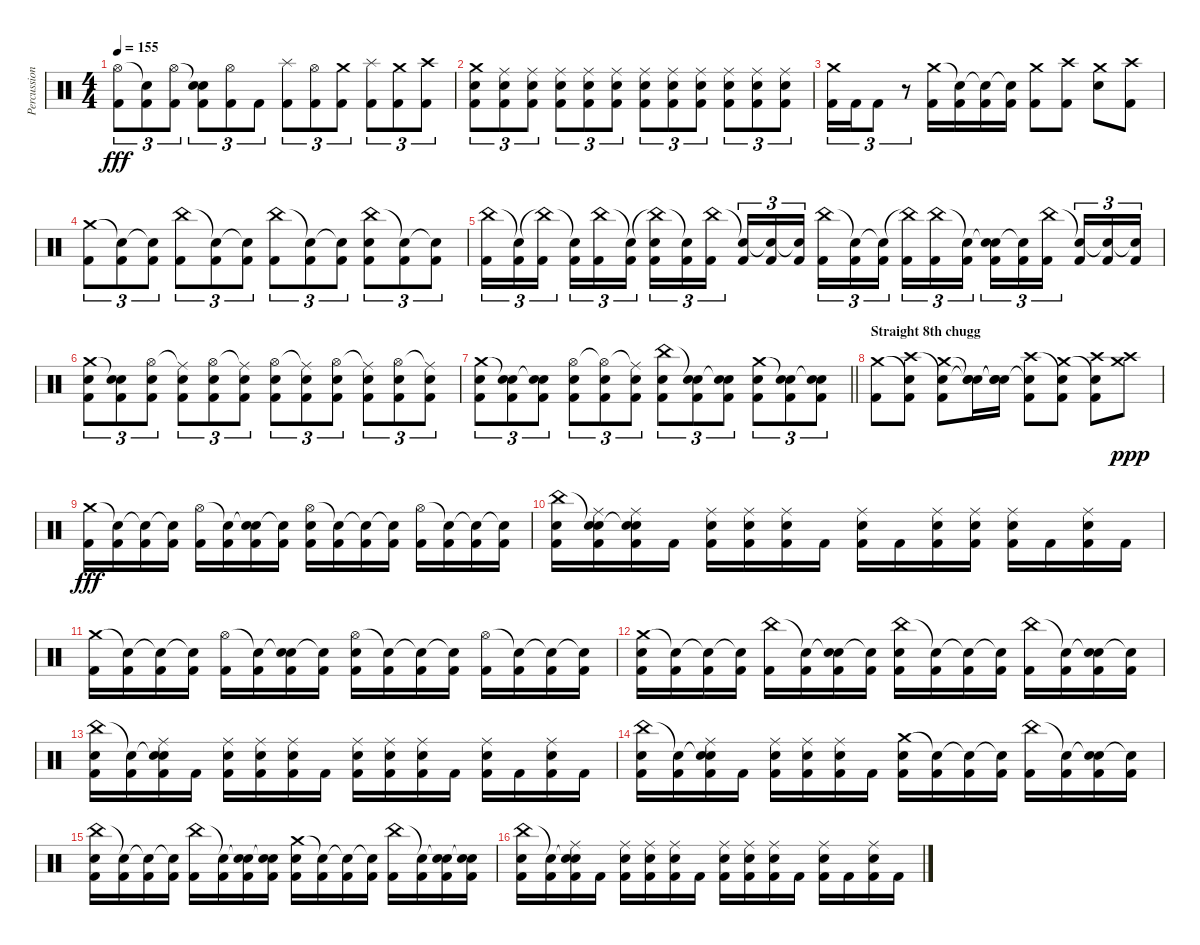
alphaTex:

\track ("Percussion" "Percussion") {instrument percussion}
\staff {score}
\articulation defaults
\ts (4 4)
\tempo 155
\clef neutral
\ks c
("Hi-Hat (open)" "Kick (hit) 2").8{tu (3 2) dy fff} ("Snare (hit)"{t} "Kick (hit) 2").8{tu (3 2)} ("Hi-Hat (open)" "Kick (hit) 2").8{tu (3 2)} ("Snare (hit)"{t} "Electric Snare (hit)" "Kick (hit) 2").8{tu (3 2)} ("Hi-Hat (open)" "Kick (hit) 2").8{tu (3 2)} "Kick (hit) 2".8{tu (3 2)} ("Splash (hit)" "Kick (hit) 2").8{tu (3 2)} ("Hi-Hat (open)" "Kick (hit) 2").8{tu (3 2)} ("Crash medium (hit)" "Kick (hit) 2").8{tu (3 2)} ("Splash (hit)" "Kick (hit) 2").8{tu (3 2)} ("Crash medium (hit)" "Kick (hit) 2").8{tu (3 2)} ("Crash high (hit)" "Kick (hit) 2").8{tu (3 2)} |
("Crash medium (hit)" "Electric Snare (hit)" "Kick (hit) 2").8{tu (3 2)} ("Ride (middle)" "Electric Snare (hit)" "Kick (hit) 2").8{tu (3 2)} ("Ride (middle)" "Electric Snare (hit)" "Kick (hit) 2").8{tu (3 2)} ("Ride (middle)" "Electric Snare (hit)" "Kick (hit) 2").8{tu (3 2)} ("Ride (middle)" "Electric Snare (hit)" "Kick (hit) 2").8{tu (3 2)} ("Ride (middle)" "Electric Snare (hit)" "Kick (hit) 2").8{tu (3 2)} ("Ride (middle)" "Electric Snare (hit)" "Kick (hit) 2").8{tu (3 2)} ("Ride (middle)" "Electric Snare (hit)" "Kick (hit) 2").8{tu (3 2)} ("Ride (middle)" "Electric Snare (hit)" "Kick (hit) 2").8{tu (3 2)} ("Ride (middle)" "Electric Snare (hit)" "Kick (hit) 2").8{tu (3 2)} ("Ride (middle)" "Electric Snare (hit)" "Kick (hit) 2").8{tu (3 2)} ("Ride (middle)" "Electric Snare (hit)" "Kick (hit) 2").8{tu (3 2)} |
("Crash medium (hit)" "Kick (hit) 2").16{tu (3 2)} "Kick (hit) 2".16{tu (3 2)} "Kick (hit) 2".8{tu (3 2)} r.8{tu (3 2)} ("Crash medium (hit)" "Kick (hit) 2").16 ("Snare (hit)"{t} "Kick (hit) 2").16 ("Snare (hit)"{t} "Kick (hit) 2").16 ("Snare (hit)"{t} "Kick (hit) 2").16 ("Crash medium (hit)" "Kick (hit) 2").8 ("Crash high (hit)" "Kick (hit) 2").8 ("Crash medium (hit)" "Electric Snare (hit)").8 ("Crash high (hit)" "Kick (hit) 2").8 |
("Crash medium (hit)" "Kick (hit) 2").8{tu (3 2)} ("Snare (hit)"{t} "Kick (hit) 2").8{tu (3 2)} ("Snare (hit)"{t} "Kick (hit) 2").8{tu (3 2)} ("China (hit)" "Kick (hit) 2").8{tu (3 2)} ("Snare (hit)"{t} "Kick (hit) 2").8{tu (3 2)} ("Snare (hit)"{t} "Kick (hit) 2").8{tu (3 2)} ("China (hit)" "Kick (hit) 2").8{tu (3 2)} ("Snare (hit)"{t} "Kick (hit) 2").8{tu (3 2)} ("Snare (hit)"{t} "Kick (hit) 2").8{tu (3 2)} ("China (hit)" "Electric Snare (hit)" "Kick (hit) 2").8{tu (3 2)} ("Snare (hit)"{t} "Kick (hit) 2").8{tu (3 2)} ("Snare (hit)"{t} "Kick (hit) 2").8{tu (3 2)} |
("China (hit)" "Kick (hit) 2").16{tu (3 2)} ("Snare (hit)"{t} "Kick (hit) 2").16{tu (3 2)} ("China (hit)"{t} "Kick (hit) 2").16{tu (3 2) beam splitsecondary} ("Snare (hit)"{t} "Kick (hit) 2").16{tu (3 2)} ("China (hit)" "Kick (hit) 2").16{tu (3 2)} ("Snare (hit)"{t} "Kick (hit) 2").16{tu (3 2)} ("China (hit)"{t} "Electric Snare (hit)" "Kick (hit) 2").16{tu (3 2)} ("Snare (hit)"{t} "Kick (hit) 2").16{tu (3 2)} ("China (hit)" "Kick (hit) 2").16{tu (3 2) beam splitsecondary} ("Snare (hit)"{t} "Kick (hit) 2").16{tu (3 2)} ("Snare (hit)"{t} "Kick (hit) 2").16{tu (3 2)} ("Snare (hit)"{t} "Kick (hit) 2").16{tu (3 2)} ("China (hit)" "Kick (hit) 2").16{tu (3 2)} ("Snare (hit)"{t} "Kick (hit) 2").16{tu (3 2)} ("Snare (hit)"{t} "Kick (hit) 2").16{tu (3 2) beam splitsecondary} ("China (hit)"{t} "Kick (hit) 2").16{tu (3 2)} ("China (hit)" "Kick (hit) 2").16{tu (3 2)} ("Snare (hit)"{t} "Kick (hit) 2").16{tu (3 2)} ("Snare (hit)"{t} "Electric Snare (hit)" "Kick (hit) 2").16{tu (3 2)} ("Snare (hit)"{t} "Kick (hit) 2").16{tu (3 2)} ("China (hit)" "Kick (hit) 2").16{tu (3 2) beam splitsecondary} ("Snare (hit)"{t} "Kick (hit) 2").16{tu (3 2)} ("Snare (hit)"{t} "Kick (hit) 2").16{tu (3 2)} ("Snare (hit)"{t} "Kick (hit) 2").16{tu (3 2)} |
("Crash medium (hit)" "Electric Snare (hit)" "Kick (hit) 2").8{tu (3 2)} ("Snare (hit)"{t} "Electric Snare (hit)" "Kick (hit) 2").8{tu (3 2)} ("Hi-Hat (open)" "Electric Snare (hit)" "Kick (hit) 2").8{tu (3 2)} ("Ride (middle)"{t} "Electric Snare (hit)" "Kick (hit) 2").8{tu (3 2)} ("Hi-Hat (open)" "Electric Snare (hit)" "Kick (hit) 2").8{tu (3 2)} ("Ride (middle)"{t} "Electric Snare (hit)" "Kick (hit) 2").8{tu (3 2)} ("Hi-Hat (open)" "Electric Snare (hit)" "Kick (hit) 2").8{tu (3 2)} ("Ride (middle)"{t} "Electric Snare (hit)" "Kick (hit) 2").8{tu (3 2)} ("Hi-Hat (open)" "Electric Snare (hit)" "Kick (hit) 2").8{tu (3 2)} ("Ride (middle)"{t} "Electric Snare (hit)" "Kick (hit) 2").8{tu (3 2)} ("Hi-Hat (open)" "Electric Snare (hit)" "Kick (hit) 2").8{tu (3 2)} ("Ride (middle)"{t} "Electric Snare (hit)" "Kick (hit) 2").8{tu (3 2)} |
\barLineRight lightlight
("Crash medium (hit)" "Electric Snare (hit)" "Kick (hit) 2").8{tu (3 2)} ("Snare (hit)"{t} "Electric Snare (hit)" "Kick (hit) 2").8{tu (3 2)} ("Snare (hit)"{t} "Electric Snare (hit)" "Kick (hit) 2").8{tu (3 2)} ("Hi-Hat (open)" "Electric Snare (hit)" "Kick (hit) 2").8{tu (3 2)} ("Hi-Hat (open)"{t} "Electric Snare (hit)" "Kick (hit) 2").8{tu (3 2)} ("Ride (middle)"{t} "Electric Snare (hit)" "Kick (hit) 2").8{tu (3 2)} ("China (hit)" "Electric Snare (hit)" "Kick (hit) 2").8{tu (3 2)} ("Snare (hit)"{t} "Electric Snare (hit)" "Kick (hit) 2").8{tu (3 2)} ("Snare (hit)"{t} "Electric Snare (hit)" "Kick (hit) 2").8{tu (3 2)} ("Crash medium (hit)" "Electric Snare (hit)" "Kick (hit) 2").8{tu (3 2)} ("Snare (hit)"{t} "Electric Snare (hit)" "Kick (hit) 2").8{tu (3 2)} ("Snare (hit)"{t} "Electric Snare (hit)" "Kick (hit) 2").8{tu (3 2)} |
\section ("" "Straight 8th chugg")
("Crash medium (hit)" "Kick (hit) 2").8 ("Snare (hit)"{t} "Crash high (hit)" "Kick (hit) 2").8 ("Crash medium (hit)" "Snare (hit)"{t} "Kick (hit) 2").8 ("Snare (hit)"{t} "Snare (hit)"{t} "Electric Snare (hit)").16 ("Snare (hit)"{t} "Snare (hit)"{t} "Electric Snare (hit)").16 ("Snare (hit)"{t} "Crash high (hit)" "Kick (hit) 2").8 ("Crash medium (hit)" "Snare (hit)"{t} "Kick (hit) 2").8 ("Snare (hit)"{t} "Crash high (hit)" "Kick (hit) 2").8 ("Crash medium (hit)" "Crash high (hit)").8{dy ppp} |
("Crash medium (hit)" "Kick (hit) 2").16{dy fff} ("Snare (hit)"{t} "Kick (hit) 2").16 ("Snare (hit)"{t} "Kick (hit) 2").16 ("Snare (hit)"{t} "Kick (hit) 2").16 ("Hi-Hat (open)" "Kick (hit) 2").16 ("Snare (hit)"{t} "Kick (hit) 2").16 ("Snare (hit)"{t} "Electric Snare (hit)" "Kick (hit) 2").16 ("Snare (hit)"{t} "Kick (hit) 2").16 ("Hi-Hat (open)" "Electric Snare (hit)" "Kick (hit) 2").16 ("Snare (hit)"{t} "Kick (hit) 2").16 ("Snare (hit)"{t} "Kick (hit) 2").16 ("Snare (hit)"{t} "Kick (hit) 2").16 ("Hi-Hat (open)" "Kick (hit) 2").16 ("Snare (hit)"{t} "Kick (hit) 2").16 ("Snare (hit)"{t} "Kick (hit) 2").16 ("Snare (hit)"{t} "Kick (hit) 2").16 |
("China (hit)" "Electric Snare (hit)" "Kick (hit) 2").16 ("Snare (hit)"{t} "Ride (middle)" "Electric Snare (hit)" "Kick (hit) 2").16 ("Snare (hit)"{t} "Ride (middle)" "Electric Snare (hit)" "Kick (hit) 2").16 "Kick (hit) 2".16 ("Ride (middle)" "Electric Snare (hit)" "Kick (hit) 2").16 ("Ride (middle)" "Electric Snare (hit)" "Kick (hit) 2").16 ("Ride (middle)" "Electric Snare (hit)" "Kick (hit) 2").16 "Kick (hit) 2".16 ("Ride (middle)" "Electric Snare (hit)" "Kick (hit) 2").16 "Kick (hit) 2".16 ("Ride (middle)" "Electric Snare (hit)" "Kick (hit) 2").16 ("Ride (middle)" "Electric Snare (hit)" "Kick (hit) 2").16 ("Ride (middle)" "Electric Snare (hit)" "Kick (hit) 2").16 "Kick (hit) 2".16 ("Ride (middle)" "Electric Snare (hit)" "Kick (hit) 2").16 "Kick (hit) 2".16 |
("Crash medium (hit)" "Kick (hit) 2").16 ("Snare (hit)"{t} "Kick (hit) 2").16 ("Snare (hit)"{t} "Kick (hit) 2").16 ("Snare (hit)"{t} "Kick (hit) 2").16 ("Hi-Hat (open)" "Kick (hit) 2").16 ("Snare (hit)"{t} "Kick (hit) 2").16 ("Snare (hit)"{t} "Electric Snare (hit)" "Kick (hit) 2").16 ("Snare (hit)"{t} "Kick (hit) 2").16 ("Hi-Hat (open)" "Electric Snare (hit)" "Kick (hit) 2").16 ("Snare (hit)"{t} "Kick (hit) 2").16 ("Snare (hit)"{t} "Kick (hit) 2").16 ("Snare (hit)"{t} "Kick (hit) 2").16 ("Hi-Hat (open)" "Kick (hit) 2").16 ("Snare (hit)"{t} "Kick (hit) 2").16 ("Snare (hit)"{t} "Kick (hit) 2").16 ("Snare (hit)"{t} "Kick (hit) 2").16 |
("Crash medium (hit)" "Electric Snare (hit)" "Kick (hit) 2").16 ("Snare (hit)"{t} "Kick (hit) 2").16 ("Snare (hit)"{t} "Kick (hit) 2").16 ("Snare (hit)"{t} "Kick (hit) 2").16 ("China (hit)" "Kick (hit) 2").16 ("Snare (hit)"{t} "Kick (hit) 2").16 ("Snare (hit)"{t} "Electric Snare (hit)" "Kick (hit) 2").16 ("Snare (hit)"{t} "Kick (hit) 2").16 ("China (hit)" "Electric Snare (hit)" "Kick (hit) 2").16 ("Snare (hit)"{t} "Kick (hit) 2").16 ("Snare (hit)"{t} "Kick (hit) 2").16 ("Snare (hit)"{t} "Kick (hit) 2").16 ("China (hit)" "Kick (hit) 2").16 ("Snare (hit)"{t} "Kick (hit) 2").16 ("Snare (hit)"{t} "Electric Snare (hit)" "Kick (hit) 2").16 ("Snare (hit)"{t} "Kick (hit) 2").16 |
("China (hit)" "Electric Snare (hit)" "Kick (hit) 2").16 ("Snare (hit)"{t} "Kick (hit) 2").16 ("Snare (hit)"{t} "Ride (middle)" "Electric Snare (hit)" "Kick (hit) 2").16 "Kick (hit) 2".16 ("Ride (middle)" "Electric Snare (hit)" "Kick (hit) 2").16 ("Ride (middle)" "Electric Snare (hit)" "Kick (hit) 2").16 ("Ride (middle)" "Electric Snare (hit)" "Kick (hit) 2").16 "Kick (hit) 2".16 ("Ride (middle)" "Electric Snare (hit)" "Kick (hit) 2").16 ("Ride (middle)" "Electric Snare (hit)" "Kick (hit) 2").16 ("Ride (middle)" "Electric Snare (hit)" "Kick (hit) 2").16 "Kick (hit) 2".16 ("Ride (middle)" "Electric Snare (hit)" "Kick (hit) 2").16 "Kick (hit) 2".16 ("Ride (middle)" "Electric Snare (hit)" "Kick (hit) 2").16 "Kick (hit) 2".16 |
("China (hit)" "Electric Snare (hit)" "Kick (hit) 2").16 ("Snare (hit)"{t} "Kick (hit) 2").16 ("Snare (hit)"{t} "Ride (middle)" "Electric Snare (hit)" "Kick (hit) 2").16 "Kick (hit) 2".16 ("Ride (middle)" "Electric Snare (hit)" "Kick (hit) 2").16 ("Ride (middle)" "Electric Snare (hit)" "Kick (hit) 2").16 ("Ride (middle)" "Electric Snare (hit)" "Kick (hit) 2").16 "Kick (hit) 2".16 ("Crash medium (hit)" "Electric Snare (hit)" "Kick (hit) 2").16 ("Snare (hit)"{t} "Kick (hit) 2").16 ("Snare (hit)"{t} "Kick (hit) 2").16 ("Snare (hit)"{t} "Kick (hit) 2").16 ("China (hit)" "Kick (hit) 2").16 ("Snare (hit)"{t} "Kick (hit) 2").16 ("Snare (hit)"{t} "Electric Snare (hit)" "Kick (hit) 2").16 ("Snare (hit)"{t} "Kick (hit) 2").16 |
("China (hit)" "Electric Snare (hit)" "Kick (hit) 2").16 ("Snare (hit)"{t} "Kick (hit) 2").16 ("Snare (hit)"{t} "Kick (hit) 2").16 ("Snare (hit)"{t} "Kick (hit) 2").16 ("China (hit)" "Kick (hit) 2").16 ("Snare (hit)"{t} "Kick (hit) 2").16 ("Snare (hit)"{t} "Electric Snare (hit)" "Kick (hit) 2").16 ("Snare (hit)"{t} "Electric Snare (hit)" "Kick (hit) 2").16 ("Crash medium (hit)" "Electric Snare (hit)" "Kick (hit) 2").16 ("Snare (hit)"{t} "Kick (hit) 2").16 ("Snare (hit)"{t} "Kick (hit) 2").16 ("Snare (hit)"{t} "Kick (hit) 2").16 ("China (hit)" "Kick (hit) 2").16 ("Snare (hit)"{t} "Kick (hit) 2").16 ("Snare (hit)"{t} "Electric Snare (hit)" "Kick (hit) 2").16 ("Snare (hit)"{t} "Electric Snare (hit)" "Kick (hit) 2").16 |
("China (hit)" "Electric Snare (hit)" "Kick (hit) 2").16 ("Snare (hit)"{t} "Kick (hit) 2").16 ("Snare (hit)"{t} "Ride (middle)" "Electric Snare (hit)" "Kick (hit) 2").16 "Kick (hit) 2".16 ("Ride (middle)" "Electric Snare (hit)" "Kick (hit) 2").16 ("Ride (middle)" "Electric Snare (hit)" "Kick (hit) 2").16 ("Ride (middle)" "Electric Snare (hit)" "Kick (hit) 2").16 "Kick (hit) 2".16 ("Ride (middle)" "Electric Snare (hit)" "Kick (hit) 2").16 ("Ride (middle)" "Electric Snare (hit)" "Kick (hit) 2").16 ("Ride (middle)" "Electric Snare (hit)" "Kick (hit) 2").16 "Kick (hit) 2".16 ("Ride (middle)" "Electric Snare (hit)" "Kick (hit) 2").16 "Kick (hit) 2".16 ("Ride (middle)" "Electric Snare (hit)" "Kick (hit) 2").16 "Kick (hit) 2".16
